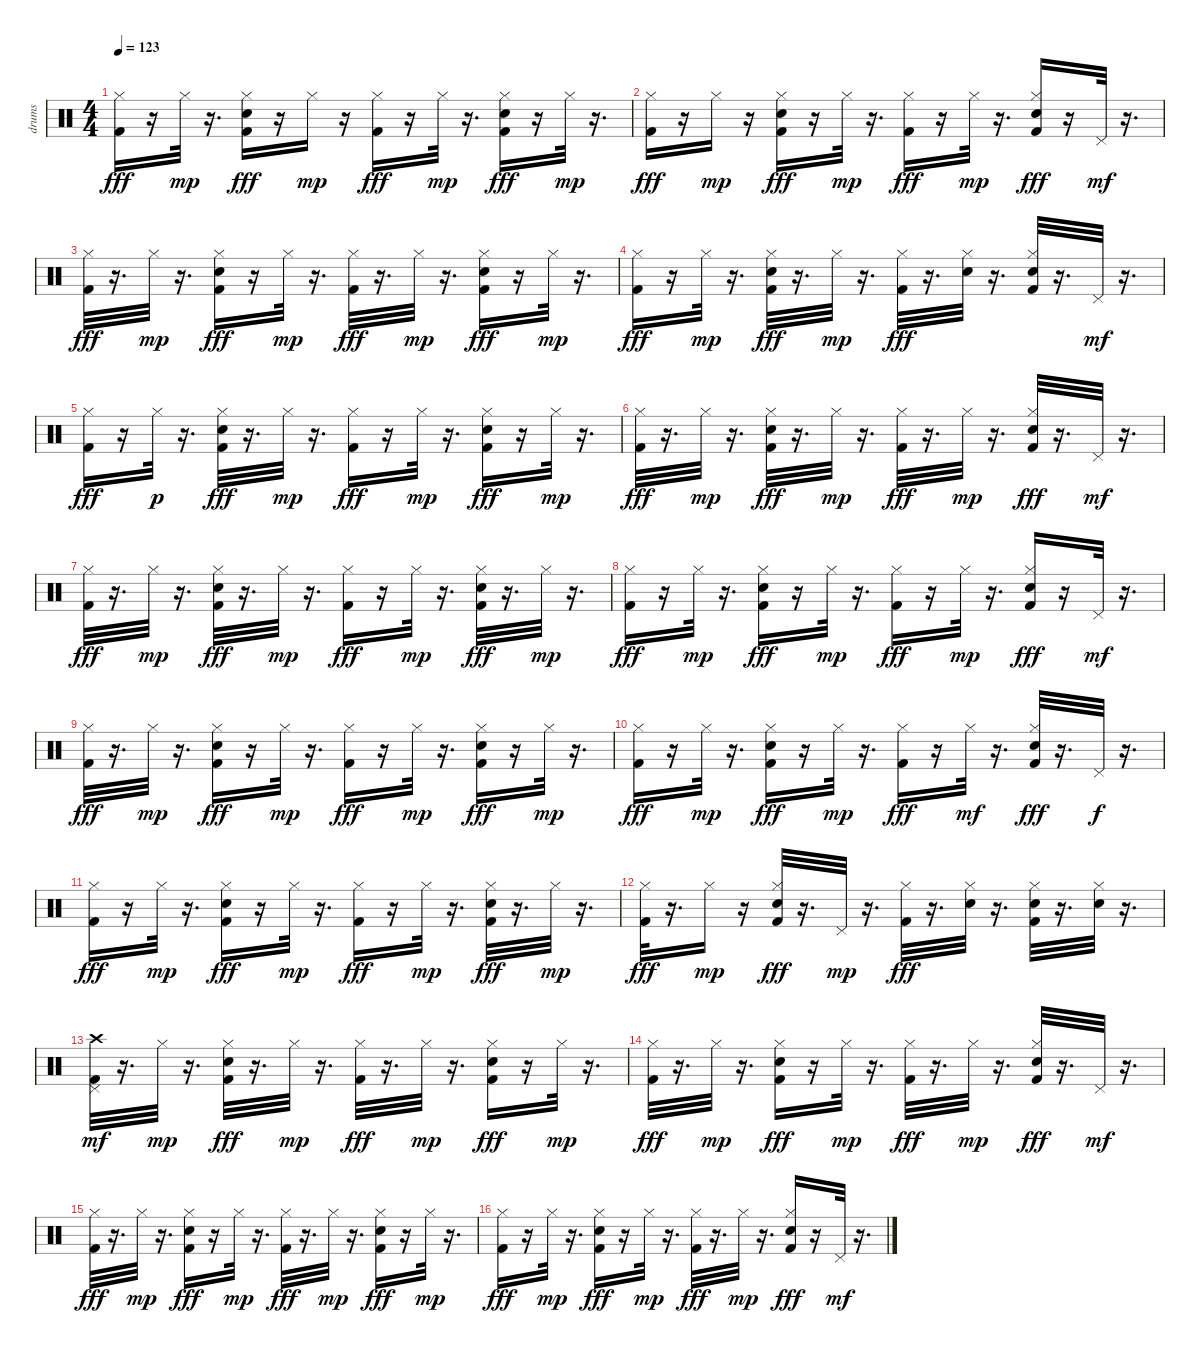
\track ("drums   " "drums   ") {instrument percussion}
\staff {score}
\articulation defaults
\ts (4 4)
\tempo 123
\clef neutral
\ks c
("Kick (hit) 2" "Hi-Hat (closed)").16{dy fff} r.16 "Hi-Hat (closed)".32{dy mp} r.16{d} ("Kick (hit) 2" "Hi-Hat (closed)" "Snare (hit) 2").16{dy fff} r.16 "Hi-Hat (closed)".16{dy mp} r.16 ("Hi-Hat (closed)" "Kick (hit) 2").16{dy fff} r.16 "Hi-Hat (closed)".32{dy mp} r.16{d} ("Snare (hit) 2" "Hi-Hat (closed)" "Kick (hit) 2").16{dy fff} r.16 "Hi-Hat (closed)".32{dy mp} r.16{d} |
("Hi-Hat (closed)" "Kick (hit) 2").16{dy fff} r.16 "Hi-Hat (closed)".16{dy mp} r.16 ("Kick (hit) 2" "Hi-Hat (closed)" "Snare (hit) 2").16{dy fff} r.16 "Hi-Hat (closed)".32{dy mp} r.16{d} ("Hi-Hat (closed)" "Kick (hit) 2").16{dy fff} r.16 "Hi-Hat (closed)".32{dy mp} r.16{d} ("Kick (hit) 2" "Hi-Hat (closed)" "Snare (hit) 2").16{dy fff} r.16 "Pedal Hi-Hat (hit)".32{dy mf} r.16{d} |
("Hi-Hat (closed)" "Kick (hit) 2").32{dy fff} r.16{d} "Hi-Hat (closed)".32{dy mp} r.16{d} ("Hi-Hat (closed)" "Kick (hit) 2" "Snare (hit) 2").16{dy fff} r.16 "Hi-Hat (closed)".32{dy mp} r.16{d} ("Kick (hit) 2" "Hi-Hat (closed)").32{dy fff} r.16{d} "Hi-Hat (closed)".32{dy mp} r.16{d} ("Kick (hit) 2" "Hi-Hat (closed)" "Snare (hit) 2").16{dy fff} r.16 "Hi-Hat (closed)".32{dy mp} r.16{d} |
("Hi-Hat (closed)" "Kick (hit) 2").16{dy fff} r.16 "Hi-Hat (closed)".32{dy mp} r.16{d} ("Hi-Hat (closed)" "Kick (hit) 2" "Snare (hit) 2").32{dy fff} r.16{d} "Hi-Hat (closed)".32{dy mp} r.16{d} ("Hi-Hat (closed)" "Kick (hit) 2").32{dy fff} r.16{d} ("Hi-Hat (closed)" "Snare (hit) 2").32 r.16{d} ("Kick (hit) 2" "Hi-Hat (closed)" "Snare (hit) 2").32 r.16{d} "Pedal Hi-Hat (hit)".32{dy mf} r.16{d} |
("Hi-Hat (closed)" "Kick (hit) 2").16{dy fff} r.16 "Hi-Hat (closed)".32{dy p} r.16{d} ("Kick (hit) 2" "Hi-Hat (closed)" "Snare (hit) 2").32{dy fff} r.16{d} "Hi-Hat (closed)".32{dy mp} r.16{d} ("Kick (hit) 2" "Hi-Hat (closed)").16{dy fff} r.16 "Hi-Hat (closed)".32{dy mp} r.16{d} ("Kick (hit) 2" "Hi-Hat (closed)" "Snare (hit) 2").16{dy fff} r.16 "Hi-Hat (closed)".32{dy mp} r.16{d} |
("Hi-Hat (closed)" "Kick (hit) 2").32{dy fff} r.16{d} "Hi-Hat (closed)".32{dy mp} r.16{d} ("Hi-Hat (closed)" "Snare (hit) 2" "Kick (hit) 2").32{dy fff} r.16{d} "Hi-Hat (closed)".32{dy mp} r.16{d} ("Kick (hit) 2" "Hi-Hat (closed)").32{dy fff} r.16{d} "Hi-Hat (closed)".32{dy mp} r.16{d} ("Kick (hit) 2" "Hi-Hat (closed)" "Snare (hit) 2").32{dy fff} r.16{d} "Pedal Hi-Hat (hit)".32{dy mf} r.16{d} |
("Hi-Hat (closed)" "Kick (hit) 2").32{dy fff} r.16{d} "Hi-Hat (closed)".32{dy mp} r.16{d} ("Kick (hit) 2" "Hi-Hat (closed)" "Snare (hit) 2").32{dy fff} r.16{d} "Hi-Hat (closed)".32{dy mp} r.16{d} ("Hi-Hat (closed)" "Kick (hit) 2").16{dy fff} r.16 "Hi-Hat (closed)".32{dy mp} r.16{d} ("Hi-Hat (closed)" "Snare (hit) 2" "Kick (hit) 2").32{dy fff} r.16{d} "Hi-Hat (closed)".32{dy mp} r.16{d} |
("Hi-Hat (closed)" "Kick (hit) 2").16{dy fff} r.16 "Hi-Hat (closed)".32{dy mp} r.16{d} ("Kick (hit) 2" "Hi-Hat (closed)" "Snare (hit) 2").16{dy fff} r.16 "Hi-Hat (closed)".32{dy mp} r.16{d} ("Hi-Hat (closed)" "Kick (hit) 2").16{dy fff} r.16 "Hi-Hat (closed)".32{dy mp} r.16{d} ("Kick (hit) 2" "Hi-Hat (closed)" "Snare (hit) 2").16{dy fff} r.16 "Pedal Hi-Hat (hit)".32{dy mf} r.16{d} |
("Kick (hit) 2" "Hi-Hat (closed)").32{dy fff} r.16{d} "Hi-Hat (closed)".32{dy mp} r.16{d} ("Kick (hit) 2" "Hi-Hat (closed)" "Snare (hit) 2").16{dy fff} r.16 "Hi-Hat (closed)".32{dy mp} r.16{d} ("Kick (hit) 2" "Hi-Hat (closed)").16{dy fff} r.16 "Hi-Hat (closed)".32{dy mp} r.16{d} ("Hi-Hat (closed)" "Kick (hit) 2" "Snare (hit) 2").16{dy fff} r.16 "Hi-Hat (closed)".32{dy mp} r.16{d} |
("Hi-Hat (closed)" "Kick (hit) 2").16{dy fff} r.16 "Hi-Hat (closed)".32{dy mp} r.16{d} ("Kick (hit) 2" "Hi-Hat (closed)" "Snare (hit) 2").16{dy fff} r.16 "Hi-Hat (closed)".32{dy mp} r.16{d} ("Kick (hit) 2" "Hi-Hat (closed)").16{dy fff} r.16 "Hi-Hat (closed)".32{dy mf} r.16{d} ("Snare (hit) 2" "Kick (hit) 2" "Hi-Hat (closed)").32{dy fff} r.16{d} "Pedal Hi-Hat (hit)".32{dy f} r.16{d} |
("Hi-Hat (closed)" "Kick (hit) 2").16{dy fff} r.16 "Hi-Hat (closed)".32{dy mp} r.16{d} ("Hi-Hat (closed)" "Kick (hit) 2" "Snare (hit) 2").16{dy fff} r.16 "Hi-Hat (closed)".32{dy mp} r.16{d} ("Hi-Hat (closed)" "Kick (hit) 2").16{dy fff} r.16 "Hi-Hat (closed)".32{dy mp} r.16{d} ("Kick (hit) 2" "Hi-Hat (closed)" "Snare (hit) 2").32{dy fff} r.16{d} "Hi-Hat (closed)".32{dy mp} r.16{d} |
("Hi-Hat (closed)" "Kick (hit) 2").32{dy fff} r.16{d} "Hi-Hat (closed)".16{dy mp} r.16 ("Hi-Hat (closed)" "Snare (hit) 2" "Kick (hit) 2").32{dy fff} r.16{d} "Pedal Hi-Hat (hit)".32{dy mp} r.16{d} ("Hi-Hat (closed)" "Kick (hit) 2").32{dy fff} r.16{d} ("Hi-Hat (closed)" "Snare (hit) 2").32 r.16{d} ("Kick (hit) 2" "Hi-Hat (closed)" "Snare (hit) 2").32 r.16{d} ("Hi-Hat (closed)" "Snare (hit) 2").32 r.16{d} |
("Pedal Hi-Hat (hit)" "Kick (hit) 2" "Crash high (hit)").32{dy mf} r.16{d} "Hi-Hat (closed)".32{dy mp} r.16{d} ("Kick (hit) 2" "Hi-Hat (closed)" "Snare (hit) 2").32{dy fff} r.16{d} "Hi-Hat (closed)".32{dy mp} r.16{d} ("Kick (hit) 2" "Hi-Hat (closed)").32{dy fff} r.16{d} "Hi-Hat (closed)".32{dy mp} r.16{d} ("Kick (hit) 2" "Hi-Hat (closed)" "Snare (hit) 2").16{dy fff} r.16 "Hi-Hat (closed)".32{dy mp} r.16{d} |
("Hi-Hat (closed)" "Kick (hit) 2").32{dy fff} r.16{d} "Hi-Hat (closed)".32{dy mp} r.16{d} ("Kick (hit) 2" "Hi-Hat (closed)" "Snare (hit) 2").16{dy fff} r.16 "Hi-Hat (closed)".32{dy mp} r.16{d} ("Hi-Hat (closed)" "Kick (hit) 2").32{dy fff} r.16{d} "Hi-Hat (closed)".32{dy mp} r.16{d} ("Kick (hit) 2" "Hi-Hat (closed)" "Snare (hit) 2").32{dy fff} r.16{d} "Pedal Hi-Hat (hit)".32{dy mf} r.16{d} |
("Hi-Hat (closed)" "Kick (hit) 2").32{dy fff} r.16{d} "Hi-Hat (closed)".32{dy mp} r.16{d} ("Kick (hit) 2" "Hi-Hat (closed)" "Snare (hit) 2").16{dy fff} r.16 "Hi-Hat (closed)".32{dy mp} r.16{d} ("Hi-Hat (closed)" "Kick (hit) 2").32{dy fff} r.16{d} "Hi-Hat (closed)".32{dy mp} r.16{d} ("Kick (hit) 2" "Hi-Hat (closed)" "Snare (hit) 2").16{dy fff} r.16 "Hi-Hat (closed)".32{dy mp} r.16{d} |
("Hi-Hat (closed)" "Kick (hit) 2").16{dy fff} r.16 "Hi-Hat (closed)".32{dy mp} r.16{d} ("Hi-Hat (closed)" "Kick (hit) 2" "Snare (hit) 2").16{dy fff} r.16 "Hi-Hat (closed)".32{dy mp} r.16{d} ("Hi-Hat (closed)" "Kick (hit) 2").32{dy fff} r.16{d} "Hi-Hat (closed)".32{dy mp} r.16{d} ("Kick (hit) 2" "Hi-Hat (closed)" "Snare (hit) 2").16{dy fff} r.16 "Pedal Hi-Hat (hit)".32{dy mf} r.16{d}
